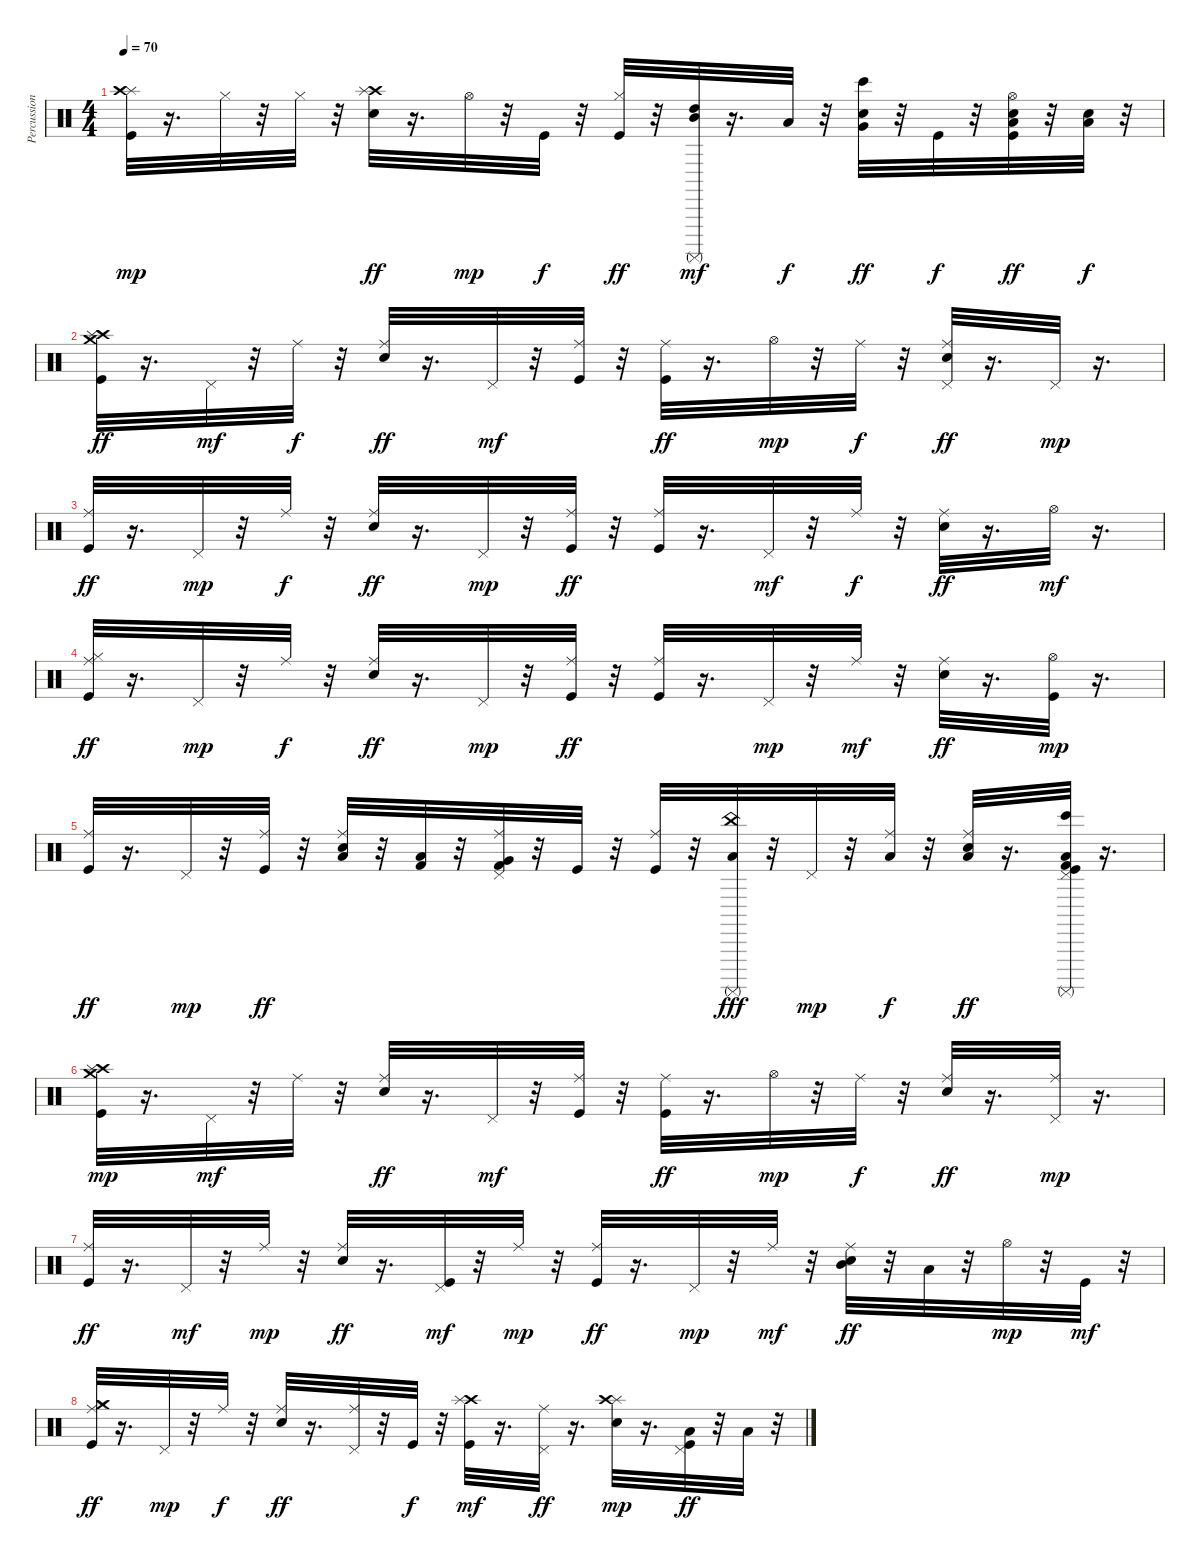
\track ("Percussion" "Percussion") {instrument percussion}
\staff {score}
\articulation defaults
\ts (4 4)
\tempo 70
\clef neutral
\ks c
("Kick (hit)" "Splash (hit)" "Crash high (hit)").32{dy mp} r.16{d} "Hi-Hat (closed)".32 r.32 "Hi-Hat (closed)".32 r.32 ("Crash high (hit)" "Splash (hit)" "Electric Snare (hit)").32{dy ff} r.16{d} "Hi-Hat (open)".32{dy mp} r.32 "Kick (hit)".32{dy f} r.32 ("Hi-Hat (closed)" "Kick (hit)").32{dy ff} r.32 ("Mid Tom (hit)" "High Tom (hit)" "Surdo (mute)").32{dy mf} r.16{d} "Low Tom (hit)".32{dy f} r.32 ("Electric Snare (hit)" "Very Low Tom (hit)" "Bongo High (hit)").32{dy ff} r.32 "Kick (hit)".32{dy f} r.32 ("Hi-Hat (open)" "Kick (hit)" "Low Tom (hit)" "Hand Clap (hit)").32{dy ff} r.32 ("Low Floor Tom (hit)" "Hand Clap (hit)").32{dy f} r.32 |
("Kick (hit)" "Crash high (hit)" "Splash (hit)" "Crash medium (hit)").32{dy ff} r.16{d} "Pedal Hi-Hat (hit)".32{dy mf} r.32 "Ride (middle)".32{dy f} r.32 ("Snare (hit) 2" "Ride (middle)").32{dy ff} r.16{d} "Pedal Hi-Hat (hit)".32{dy mf} r.32 ("Kick (hit)" "Ride (middle)").32 r.32 ("Ride (middle)" "Kick (hit)").32{dy ff} r.16{d} "Hi-Hat (open)".32{dy mp} r.32 "Ride (middle)".32{dy f} r.32 ("Pedal Hi-Hat (hit)" "Ride (middle)" "Snare (hit) 2").32{dy ff} r.16{d} "Pedal Hi-Hat (hit)".32{dy mp} r.16{d} |
("Ride (middle)" "Kick (hit)").32{dy ff} r.16{d} "Pedal Hi-Hat (hit)".32{dy mp} r.32 "Ride (middle)".32{dy f} r.32 ("Snare (hit) 2" "Ride (middle)").32{dy ff} r.16{d} "Pedal Hi-Hat (hit)".32{dy mp} r.32 ("Kick (hit)" "Ride (middle)").32{dy ff} r.32 ("Kick (hit)" "Ride (middle)").32 r.16{d} "Pedal Hi-Hat (hit)".32{dy mf} r.32 "Ride (middle)".32{dy f} r.32 ("Snare (hit) 2" "Ride (middle)").32{dy ff} r.16{d} "Hi-Hat (open)".32{dy mf} r.16{d} |
("Kick (hit)" "Hi-Hat (closed)" "Ride (middle)").32{dy ff} r.16{d} "Pedal Hi-Hat (hit)".32{dy mp} r.32 "Ride (middle)".32{dy f} r.32 ("Ride (middle)" "Snare (hit) 2").32{dy ff} r.16{d} "Pedal Hi-Hat (hit)".32{dy mp} r.32 ("Ride (middle)" "Kick (hit)").32{dy ff} r.32 ("Kick (hit)" "Ride (middle)").32 r.16{d} "Pedal Hi-Hat (hit)".32{dy mp} r.32 "Ride (middle)".32{dy mf} r.32 ("Snare (hit) 2" "Ride (middle)").32{dy ff} r.16{d} ("Hi-Hat (open)" "Kick (hit)").32{dy mp} r.16{d} |
("Kick (hit)" "Ride (middle)").32{dy ff} r.16{d} "Pedal Hi-Hat (hit)".32{dy mp} r.32 ("Ride (middle)" "Kick (hit)").32{dy ff} r.32 ("Snare (hit) 2" "Ride (middle)" "Low Tom (hit)").32 r.32 ("Low Tom (hit)" "Kick (hit) 2").32 r.32 ("Ride (middle)" "Pedal Hi-Hat (hit)" "Very Low Tom (hit)" "Kick (hit) 2").32 r.32 "Kick (hit)".32 r.32 ("Kick (hit)" "Ride (middle)").32 r.32 ("Low Tom (hit)" "Surdo (mute)" "China (hit)").32{dy fff} r.32 "Pedal Hi-Hat (hit)".32{dy mp} r.32 ("Low Tom (hit)" "Ride (middle)").32{dy f} r.32 ("Low Tom (hit)" "Ride (middle)" "Snare (hit) 2").32{dy ff} r.16{d} ("Surdo (mute)" "Pedal Hi-Hat (hit)" "Kick (hit)" "Low Tom (hit)" "Kick (hit) 2" "Bongo High (hit)").32 r.16{d} |
("Crash high (hit)" "Splash (hit)" "Crash medium (hit)" "Kick (hit)").32{dy mp} r.16{d} "Pedal Hi-Hat (hit)".32{dy mf} r.32 "Ride (middle)".32 r.32 ("Snare (hit) 2" "Ride (middle)").32{dy ff} r.16{d} "Pedal Hi-Hat (hit)".32{dy mf} r.32 ("Kick (hit)" "Ride (middle)").32 r.32 ("Kick (hit)" "Ride (middle)").32{dy ff} r.16{d} "Hi-Hat (open)".32{dy mp} r.32 "Ride (middle)".32{dy f} r.32 ("Ride (middle)" "Snare (hit) 2").32{dy ff} r.16{d} ("Pedal Hi-Hat (hit)" "Ride (middle)").32{dy mp} r.16{d} |
("Kick (hit)" "Ride (middle)").32{dy ff} r.16{d} "Pedal Hi-Hat (hit)".32{dy mf} r.32 "Ride (middle)".32{dy mp} r.32 ("Ride (middle)" "Snare (hit) 2").32{dy ff} r.16{d} ("Kick (hit)" "Pedal Hi-Hat (hit)").32{dy mf} r.32 "Ride (middle)".32{dy mp} r.32 ("Kick (hit)" "Ride (middle)").32{dy ff} r.16{d} "Pedal Hi-Hat (hit)".32{dy mp} r.32 "Ride (middle)".32{dy mf} r.32 ("Snare (hit) 2" "Ride (middle)" "Mid Tom (hit)").32{dy ff} r.32 "Low Tom (hit)".32 r.32 "Hi-Hat (open)".32{dy mp} r.32 "Kick (hit)".32{dy mf} r.32 |
("Ride (middle)" "Hi-Hat (closed)" "Kick (hit)" "Crash medium (hit)").32{dy ff} r.16{d} "Pedal Hi-Hat (hit)".32{dy mp} r.32 "Ride (middle)".32{dy f} r.32 ("Snare (hit) 2" "Ride (middle)").32{dy ff} r.16{d} ("Pedal Hi-Hat (hit)" "Ride (middle)").32 r.32 "Kick (hit)".32{dy f} r.32 ("Kick (hit)" "Crash high (hit)" "Splash (hit)").32{dy mf} r.16{d} ("Pedal Hi-Hat (hit)" "Ride (middle)").32{dy ff} r.16{d} ("Snare (hit) 2" "Splash (hit)" "Crash high (hit)").32{dy mp} r.16{d} ("Pedal Hi-Hat (hit)" "Kick (hit)" "Low Tom (hit)").32{dy ff} r.32 "Low Tom (hit)".32 r.32
